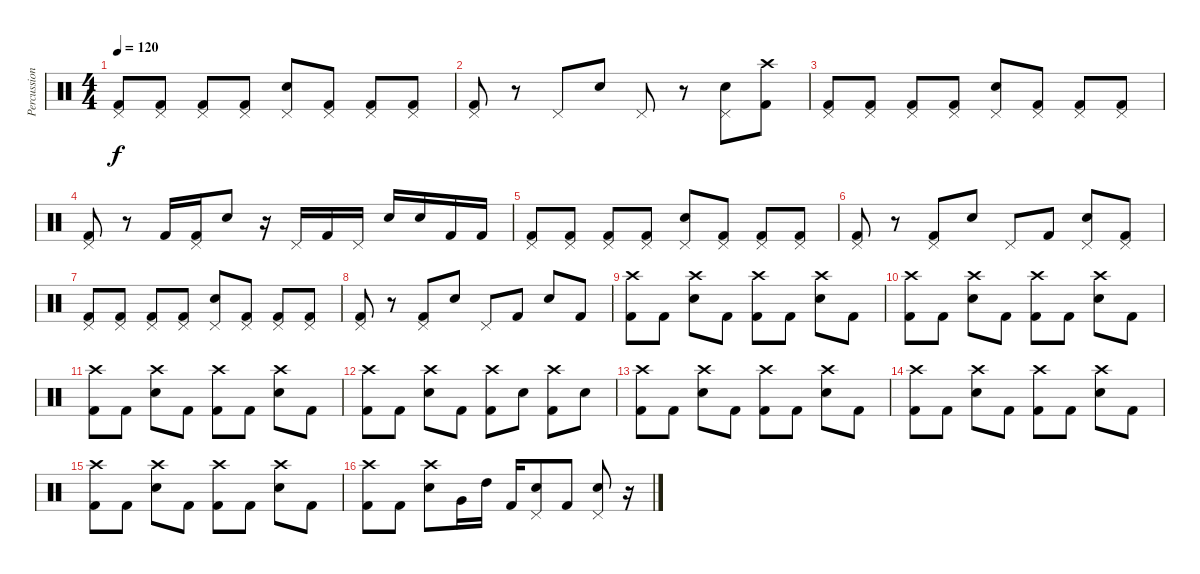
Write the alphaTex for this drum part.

\track ("Percussion" "Percussion") {instrument percussion}
\staff {score}
\articulation defaults
\ts (4 4)
\tempo 120
\clef neutral
\ks c
("Pedal Hi-Hat (hit)" "Kick (hit) 2").8{dy f} ("Pedal Hi-Hat (hit)" "Kick (hit) 2").8 ("Pedal Hi-Hat (hit)" "Kick (hit) 2").8 ("Pedal Hi-Hat (hit)" "Kick (hit) 2").8 ("Pedal Hi-Hat (hit)" "Electric Snare (hit)").8 ("Pedal Hi-Hat (hit)" "Kick (hit) 2").8 ("Pedal Hi-Hat (hit)" "Kick (hit) 2").8 ("Pedal Hi-Hat (hit)" "Kick (hit) 2").8 |
("Pedal Hi-Hat (hit)" "Kick (hit) 2").8 r.8 "Pedal Hi-Hat (hit)".8 "Electric Snare (hit)".8 "Pedal Hi-Hat (hit)".8 r.8 ("Pedal Hi-Hat (hit)" "Electric Snare (hit)").8 ("Crash high (hit)" "Kick (hit) 2").8 |
("Pedal Hi-Hat (hit)" "Kick (hit) 2").8 ("Pedal Hi-Hat (hit)" "Kick (hit) 2").8 ("Pedal Hi-Hat (hit)" "Kick (hit) 2").8 ("Pedal Hi-Hat (hit)" "Kick (hit) 2").8 ("Pedal Hi-Hat (hit)" "Electric Snare (hit)").8 ("Pedal Hi-Hat (hit)" "Kick (hit) 2").8 ("Pedal Hi-Hat (hit)" "Kick (hit) 2").8 ("Pedal Hi-Hat (hit)" "Kick (hit) 2").8 |
("Pedal Hi-Hat (hit)" "Kick (hit) 2").8 r.8 "Kick (hit) 2".16 ("Pedal Hi-Hat (hit)" "Kick (hit) 2").16 "Electric Snare (hit)".8 r.16 "Pedal Hi-Hat (hit)".16 "Kick (hit) 2".16 "Pedal Hi-Hat (hit)".16 "Electric Snare (hit)".16 "Electric Snare (hit)".16 "Kick (hit) 2".16 "Kick (hit) 2".16 |
("Pedal Hi-Hat (hit)" "Kick (hit) 2").8 ("Pedal Hi-Hat (hit)" "Kick (hit) 2").8 ("Pedal Hi-Hat (hit)" "Kick (hit) 2").8 ("Pedal Hi-Hat (hit)" "Kick (hit) 2").8 ("Pedal Hi-Hat (hit)" "Electric Snare (hit)").8 ("Pedal Hi-Hat (hit)" "Kick (hit) 2").8 ("Pedal Hi-Hat (hit)" "Kick (hit) 2").8 ("Pedal Hi-Hat (hit)" "Kick (hit) 2").8 |
("Pedal Hi-Hat (hit)" "Kick (hit) 2").8 r.8 ("Pedal Hi-Hat (hit)" "Kick (hit) 2").8 "Electric Snare (hit)".8 "Pedal Hi-Hat (hit)".8 "Kick (hit) 2".8 ("Pedal Hi-Hat (hit)" "Electric Snare (hit)").8 ("Pedal Hi-Hat (hit)" "Kick (hit) 2").8 |
("Pedal Hi-Hat (hit)" "Kick (hit) 2").8 ("Pedal Hi-Hat (hit)" "Kick (hit) 2").8 ("Pedal Hi-Hat (hit)" "Kick (hit) 2").8 ("Pedal Hi-Hat (hit)" "Kick (hit) 2").8 ("Pedal Hi-Hat (hit)" "Electric Snare (hit)").8 ("Pedal Hi-Hat (hit)" "Kick (hit) 2").8 ("Pedal Hi-Hat (hit)" "Kick (hit) 2").8 ("Pedal Hi-Hat (hit)" "Kick (hit) 2").8 |
("Pedal Hi-Hat (hit)" "Kick (hit) 2").8 r.8 ("Pedal Hi-Hat (hit)" "Kick (hit) 2").8 "Electric Snare (hit)".8 "Pedal Hi-Hat (hit)".8 "Kick (hit) 2".8 "Electric Snare (hit)".8 "Kick (hit) 2".8 |
("Crash high (hit)" "Kick (hit) 2").8 "Kick (hit) 2".8 ("Crash high (hit)" "Electric Snare (hit)").8 "Kick (hit) 2".8 ("Crash high (hit)" "Kick (hit) 2").8 "Kick (hit) 2".8 ("Crash high (hit)" "Electric Snare (hit)").8 "Kick (hit) 2".8 |
("Crash high (hit)" "Kick (hit) 2").8 "Kick (hit) 2".8 ("Crash high (hit)" "Electric Snare (hit)").8 "Kick (hit) 2".8 ("Crash high (hit)" "Kick (hit) 2").8 "Kick (hit) 2".8 ("Crash high (hit)" "Electric Snare (hit)").8 "Kick (hit) 2".8 |
("Crash high (hit)" "Kick (hit) 2").8 "Kick (hit) 2".8 ("Crash high (hit)" "Electric Snare (hit)").8 "Kick (hit) 2".8 ("Crash high (hit)" "Kick (hit) 2").8 "Kick (hit) 2".8 ("Crash high (hit)" "Electric Snare (hit)").8 "Kick (hit) 2".8 |
("Crash high (hit)" "Kick (hit) 2").8 "Kick (hit) 2".8 ("Crash high (hit)" "Electric Snare (hit)").8 "Kick (hit) 2".8 ("Crash high (hit)" "Kick (hit) 2").8 "Electric Snare (hit)".8 ("Crash high (hit)" "Kick (hit) 2").8 "Electric Snare (hit)".8 |
("Crash high (hit)" "Kick (hit) 2").8 "Kick (hit) 2".8 ("Crash high (hit)" "Electric Snare (hit)").8 "Kick (hit) 2".8 ("Crash high (hit)" "Kick (hit) 2").8 "Kick (hit) 2".8 ("Crash high (hit)" "Electric Snare (hit)").8 "Kick (hit) 2".8 |
("Crash high (hit)" "Kick (hit) 2").8 "Kick (hit) 2".8 ("Crash high (hit)" "Electric Snare (hit)").8 "Kick (hit) 2".8 ("Crash high (hit)" "Kick (hit) 2").8 "Kick (hit) 2".8 ("Crash high (hit)" "Electric Snare (hit)").8 "Kick (hit) 2".8 |
("Crash high (hit)" "Kick (hit) 2").8 "Kick (hit) 2".8 ("Crash high (hit)" "Electric Snare (hit)").8 "Kick (hit) 2".8 ("Crash high (hit)" "Kick (hit) 2").8 "Kick (hit) 2".8 ("Crash high (hit)" "Electric Snare (hit)").8 "Kick (hit) 2".8 |
("Crash high (hit)" "Kick (hit) 2").8 "Kick (hit) 2".8 ("Crash high (hit)" "Electric Snare (hit)").8 "Very Low Tom (hit)".16 "High Tom (hit)".16 "Kick (hit) 2".16 ("Pedal Hi-Hat (hit)" "Electric Snare (hit)").8 "Kick (hit) 2".8 ("Pedal Hi-Hat (hit)" "Electric Snare (hit)").8 r.16
